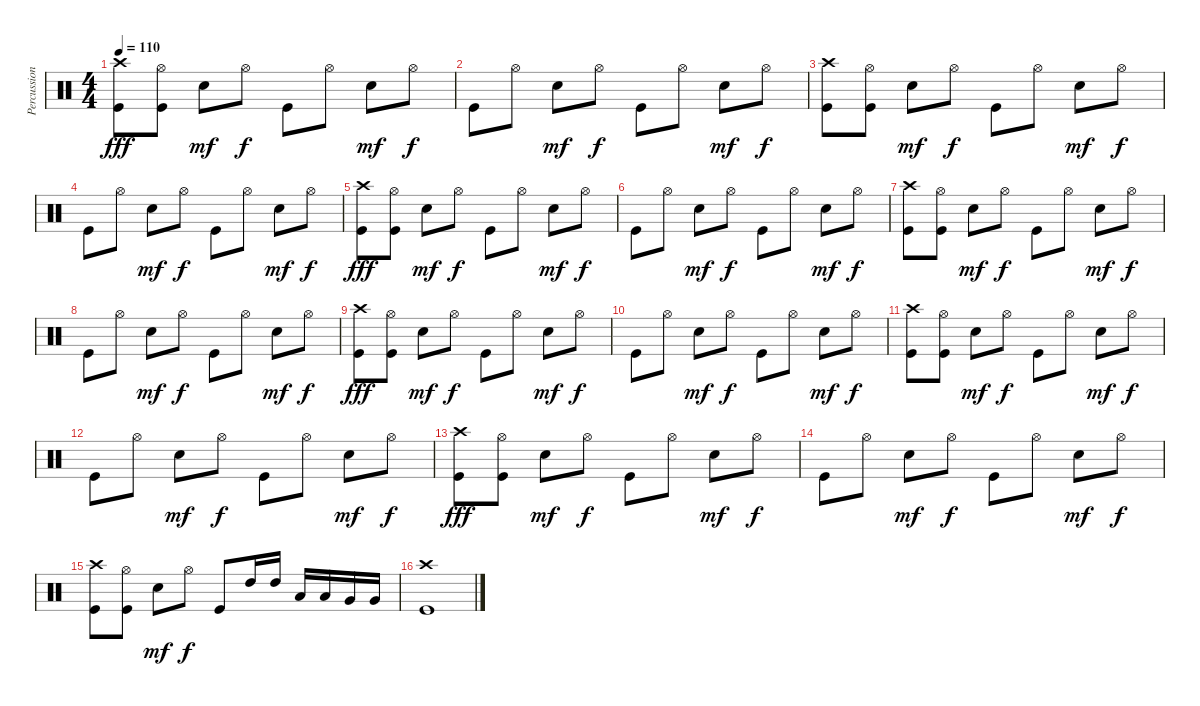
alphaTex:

\track ("Percussions" "Percussion") {instrument percussion}
\staff {score}
\articulation defaults
\ts (4 4)
\tempo 110
\clef neutral
\ks c
("Crash high (hit)" "Kick (hit)").8{dy fff} ("Hi-Hat (open)" "Kick (hit)").8 "Electric Snare (hit)".8{dy mf} "Hi-Hat (open)".8{dy f} "Kick (hit)".8 "Hi-Hat (open)".8 "Electric Snare (hit)".8{dy mf} "Hi-Hat (open)".8{dy f} |
"Kick (hit)".8 "Hi-Hat (open)".8 "Electric Snare (hit)".8{dy mf} "Hi-Hat (open)".8{dy f} "Kick (hit)".8 "Hi-Hat (open)".8 "Electric Snare (hit)".8{dy mf} "Hi-Hat (open)".8{dy f} |
("Crash high (hit)" "Kick (hit)").8 ("Hi-Hat (open)" "Kick (hit)").8 "Electric Snare (hit)".8{dy mf} "Hi-Hat (open)".8{dy f} "Kick (hit)".8 "Hi-Hat (open)".8 "Electric Snare (hit)".8{dy mf} "Hi-Hat (open)".8{dy f} |
"Kick (hit)".8 "Hi-Hat (open)".8 "Electric Snare (hit)".8{dy mf} "Hi-Hat (open)".8{dy f} "Kick (hit)".8 "Hi-Hat (open)".8 "Electric Snare (hit)".8{dy mf} "Hi-Hat (open)".8{dy f} |
("Crash high (hit)" "Kick (hit)").8{dy fff} ("Hi-Hat (open)" "Kick (hit)").8 "Electric Snare (hit)".8{dy mf} "Hi-Hat (open)".8{dy f} "Kick (hit)".8 "Hi-Hat (open)".8 "Electric Snare (hit)".8{dy mf} "Hi-Hat (open)".8{dy f} |
"Kick (hit)".8 "Hi-Hat (open)".8 "Electric Snare (hit)".8{dy mf} "Hi-Hat (open)".8{dy f} "Kick (hit)".8 "Hi-Hat (open)".8 "Electric Snare (hit)".8{dy mf} "Hi-Hat (open)".8{dy f} |
("Crash high (hit)" "Kick (hit)").8 ("Hi-Hat (open)" "Kick (hit)").8 "Electric Snare (hit)".8{dy mf} "Hi-Hat (open)".8{dy f} "Kick (hit)".8 "Hi-Hat (open)".8 "Electric Snare (hit)".8{dy mf} "Hi-Hat (open)".8{dy f} |
"Kick (hit)".8 "Hi-Hat (open)".8 "Electric Snare (hit)".8{dy mf} "Hi-Hat (open)".8{dy f} "Kick (hit)".8 "Hi-Hat (open)".8 "Electric Snare (hit)".8{dy mf} "Hi-Hat (open)".8{dy f} |
("Crash high (hit)" "Kick (hit)").8{dy fff} ("Hi-Hat (open)" "Kick (hit)").8 "Electric Snare (hit)".8{dy mf} "Hi-Hat (open)".8{dy f} "Kick (hit)".8 "Hi-Hat (open)".8 "Electric Snare (hit)".8{dy mf} "Hi-Hat (open)".8{dy f} |
"Kick (hit)".8 "Hi-Hat (open)".8 "Electric Snare (hit)".8{dy mf} "Hi-Hat (open)".8{dy f} "Kick (hit)".8 "Hi-Hat (open)".8 "Electric Snare (hit)".8{dy mf} "Hi-Hat (open)".8{dy f} |
("Crash high (hit)" "Kick (hit)").8 ("Hi-Hat (open)" "Kick (hit)").8 "Electric Snare (hit)".8{dy mf} "Hi-Hat (open)".8{dy f} "Kick (hit)".8 "Hi-Hat (open)".8 "Electric Snare (hit)".8{dy mf} "Hi-Hat (open)".8{dy f} |
"Kick (hit)".8 "Hi-Hat (open)".8 "Electric Snare (hit)".8{dy mf} "Hi-Hat (open)".8{dy f} "Kick (hit)".8 "Hi-Hat (open)".8 "Electric Snare (hit)".8{dy mf} "Hi-Hat (open)".8{dy f} |
("Crash high (hit)" "Kick (hit)").8{dy fff} ("Hi-Hat (open)" "Kick (hit)").8 "Electric Snare (hit)".8{dy mf} "Hi-Hat (open)".8{dy f} "Kick (hit)".8 "Hi-Hat (open)".8 "Electric Snare (hit)".8{dy mf} "Hi-Hat (open)".8{dy f} |
"Kick (hit)".8 "Hi-Hat (open)".8 "Electric Snare (hit)".8{dy mf} "Hi-Hat (open)".8{dy f} "Kick (hit)".8 "Hi-Hat (open)".8 "Electric Snare (hit)".8{dy mf} "Hi-Hat (open)".8{dy f} |
("Crash high (hit)" "Kick (hit)").8 ("Hi-Hat (open)" "Kick (hit)").8 "Electric Snare (hit)".8{dy mf} "Hi-Hat (open)".8{dy f} "Kick (hit)".8 "High Tom (hit)".16 "High Tom (hit)".16 "Low Tom (hit)".16 "Low Tom (hit)".16 "Very Low Tom (hit)".16 "Very Low Tom (hit)".16 |
("Crash high (hit)" "Kick (hit)").1
